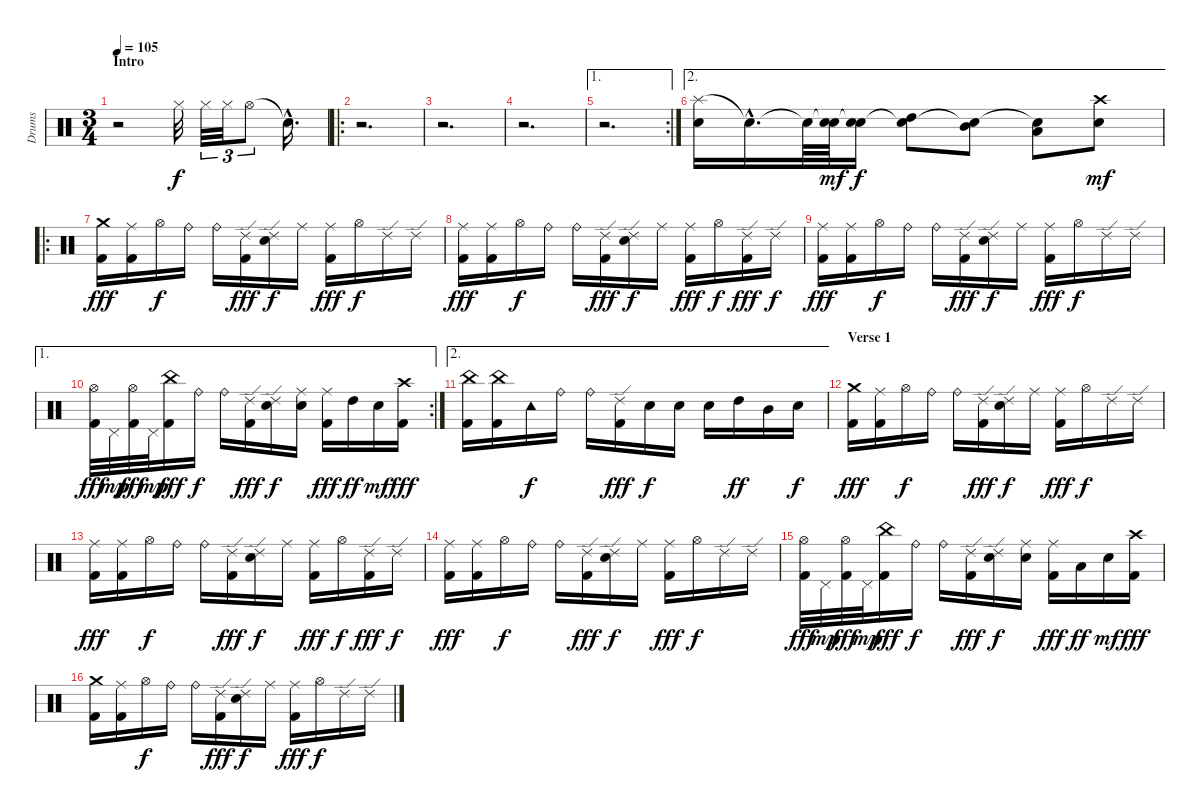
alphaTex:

\track ("Drums" "Drums") {instrument percussion}
\staff {score}
\articulation defaults
\ts (3 4)
\section ("" "Intro")
\tempo 105
\clef neutral
\ks c
r.2{dy f} "Hi-Hat (closed)".32 "Hi-Hat (closed)".32{tu (3 2)} "Hi-Hat (closed)".32{tu (3 2)} "Hi-Hat (open)".8{tu (3 2)} "Snare (hit)"{hac t}.16{d} |
\ro
r.2{d} |
r.2{d} |
r.2{d} |
\ae 1
\rc 2
r.2{d} |
\ae 2
("Splash (hit)" "Electric Snare (hit)").16 "Snare (hit)"{hac t}.16{d} "Snare (hit)"{t}.64 ("Snare (hit)"{t} "Electric Snare (hit)").64{dy mf} ("Snare (hit)"{t} "Electric Snare (hit)").16{dy f} ("Snare (hit)"{t} "High Tom (hit)").8 ("Snare (hit)"{t} "Mid Tom (hit)").8 ("Snare (hit)"{t} "Low Tom (hit)").8 ("Crash high (hit)" "Electric Snare (hit)").8{dy mf} |
\ro
\section ("" "")
("Crash medium (hit)" "Kick (hit) 2").16{dy fff} ("Ride (middle)" "Kick (hit) 2").16 "Hi-Hat (open)".16{dy f} "Ride (bell)".16 "Ride (bell)".16 ("Ride (edge) 2" "Kick (hit) 2").16{dy fff} ("Ride (edge) 2" "Electric Snare (hit)").16{dy f} "Ride (middle)".16 ("Ride (middle)" "Kick (hit) 2").16{dy fff} "Hi-Hat (open)".16{dy f} "Ride (edge) 2".16 "Ride (edge) 2".16 |
("Ride (middle)" "Kick (hit) 2").16{dy fff} ("Ride (middle)" "Kick (hit) 2").16 "Hi-Hat (open)".16{dy f} "Ride (bell)".16 "Ride (bell)".16 ("Ride (edge) 2" "Kick (hit) 2").16{dy fff} ("Ride (edge) 2" "Electric Snare (hit)").16{dy f} "Ride (middle)".16 ("Ride (middle)" "Kick (hit) 2").16{dy fff} "Hi-Hat (open)".16{dy f} ("Ride (edge) 2" "Kick (hit) 2").16{dy fff} "Ride (edge) 2".16{dy f} |
("Ride (middle)" "Kick (hit) 2").16{dy fff} ("Ride (middle)" "Kick (hit) 2").16 "Hi-Hat (open)".16{dy f} "Ride (bell)".16 "Ride (bell)".16 ("Ride (edge) 2" "Kick (hit) 2").16{dy fff} ("Ride (edge) 2" "Electric Snare (hit)").16{dy f} "Ride (middle)".16 ("Ride (middle)" "Kick (hit) 2").16{dy fff} "Hi-Hat (open)".16{dy f} "Ride (edge) 2".16 "Ride (edge) 2".16 |
\ae 1
\rc 2
("Hi-Hat (open)" "Kick (hit) 2").32{dy fff} "Pedal Hi-Hat (hit)".32{dy mp} ("Hi-Hat (open)" "Kick (hit) 2").32{dy fff} "Pedal Hi-Hat (hit)".32{dy mp} ("China (hit)" "Kick (hit) 2").16{dy fff} "Ride (bell)".16{dy f} "Ride (bell)".16 ("Ride (edge) 2" "Kick (hit) 2").16{dy fff} ("Ride (edge) 2" "Electric Snare (hit)").16{dy f} ("Ride (middle)" "Electric Snare (hit)").16 ("Ride (middle)" "Kick (hit) 2").16{dy fff} "High Tom (hit)".16{dy ff} "Electric Snare (hit)".16{dy mf} ("Crash high (hit)" "Kick (hit) 2").16{dy fff} |
\ae 2
("China (hit)" "Kick (hit) 2").16 ("China (hit)" "Kick (hit) 2").16 "Tambourine (hit)".16{dy f} "Ride (bell)".16 "Ride (bell)".16 ("Ride (edge) 2" "Kick (hit) 2").16{dy fff} "Electric Snare (hit)".16{dy f} "Electric Snare (hit)".16 "Electric Snare (hit)".16 "High Tom (hit)".16{dy ff} "Mid Tom (hit)".16 "Electric Snare (hit)".16{dy f} |
\section ("" "Verse 1")
("Crash medium (hit)" "Kick (hit) 2").16{dy fff} ("Ride (middle)" "Kick (hit) 2").16 "Hi-Hat (open)".16{dy f} "Ride (bell)".16 "Ride (bell)".16 ("Ride (edge) 2" "Kick (hit) 2").16{dy fff} ("Ride (edge) 2" "Electric Snare (hit)").16{dy f} "Ride (middle)".16 ("Ride (middle)" "Kick (hit) 2").16{dy fff} "Hi-Hat (open)".16{dy f} "Ride (edge) 2".16 "Ride (edge) 2".16 |
("Ride (middle)" "Kick (hit) 2").16{dy fff} ("Ride (middle)" "Kick (hit) 2").16 "Hi-Hat (open)".16{dy f} "Ride (bell)".16 "Ride (bell)".16 ("Ride (edge) 2" "Kick (hit) 2").16{dy fff} ("Ride (edge) 2" "Electric Snare (hit)").16{dy f} "Ride (middle)".16 ("Ride (middle)" "Kick (hit) 2").16{dy fff} "Hi-Hat (open)".16{dy f} ("Ride (edge) 2" "Kick (hit) 2").16{dy fff} "Ride (edge) 2".16{dy f} |
("Ride (middle)" "Kick (hit) 2").16{dy fff} ("Ride (middle)" "Kick (hit) 2").16 "Hi-Hat (open)".16{dy f} "Ride (bell)".16 "Ride (bell)".16 ("Ride (edge) 2" "Kick (hit) 2").16{dy fff} ("Ride (edge) 2" "Electric Snare (hit)").16{dy f} "Ride (middle)".16 ("Ride (middle)" "Kick (hit) 2").16{dy fff} "Hi-Hat (open)".16{dy f} "Ride (edge) 2".16 "Ride (edge) 2".16 |
("Hi-Hat (open)" "Kick (hit) 2").32{dy fff} "Pedal Hi-Hat (hit)".32{dy mp} ("Hi-Hat (open)" "Kick (hit) 2").32{dy fff} "Pedal Hi-Hat (hit)".32{dy mp} ("China (hit)" "Kick (hit) 2").16{dy fff} "Ride (bell)".16{dy f} "Ride (bell)".16 ("Ride (edge) 2" "Kick (hit) 2").16{dy fff} ("Ride (edge) 2" "Electric Snare (hit)").16{dy f} ("Ride (middle)" "Electric Snare (hit)").16 ("Ride (middle)" "Kick (hit) 2").16{dy fff} "Low Tom (hit)".16{dy ff} "Electric Snare (hit)".16{dy mf} ("Crash high (hit)" "Kick (hit) 2").16{dy fff} |
("Crash medium (hit)" "Kick (hit) 2").16 ("Ride (middle)" "Kick (hit) 2").16 "Hi-Hat (open)".16{dy f} "Ride (bell)".16 "Ride (bell)".16 ("Ride (edge) 2" "Kick (hit) 2").16{dy fff} ("Ride (edge) 2" "Electric Snare (hit)").16{dy f} "Ride (middle)".16 ("Ride (middle)" "Kick (hit) 2").16{dy fff} "Hi-Hat (open)".16{dy f} "Ride (edge) 2".16 "Ride (edge) 2".16
